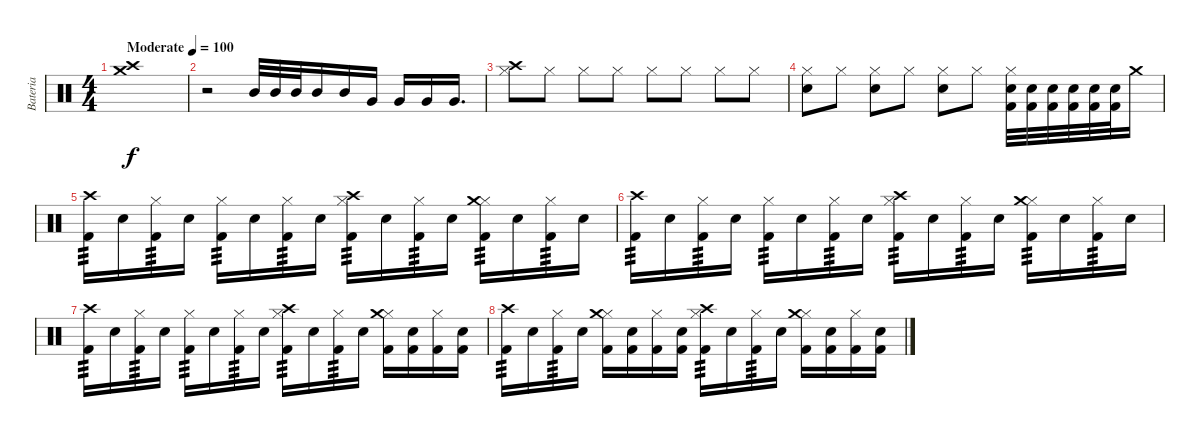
\track ("Bateria" "Bateria") {mute instrument percussion}
\staff {score}
\articulation defaults
\ts (4 4)
\tempo (100 "Moderate")
\clef neutral
\ks c
("Crash medium (hit)" "Crash high (hit)").1{dy f} |
r.2 "Mid Tom (hit)".32 "Mid Tom (hit)".32 "Mid Tom (hit)".32 "Mid Tom (hit)".16 "Mid Tom (hit)".16 "Very Low Tom (hit)".16 "Very Low Tom (hit)".16 "Very Low Tom (hit)".16 "Very Low Tom (hit)".16{d} |
("Crash high (hit)" "Hi-Hat (closed)").8 "Hi-Hat (closed)".8 "Hi-Hat (closed)".8 "Hi-Hat (closed)".8 "Hi-Hat (closed)".8 "Hi-Hat (closed)".8 "Hi-Hat (closed)".8 "Hi-Hat (closed)".8 |
("Hi-Hat (closed)" "Electric Snare (hit)").8 "Hi-Hat (closed)".8 ("Hi-Hat (closed)" "Electric Snare (hit)").8 "Hi-Hat (closed)".8 ("Hi-Hat (closed)" "Electric Snare (hit)").8 "Hi-Hat (closed)".8 ("Hi-Hat (closed)" "Electric Snare (hit)" "Kick (hit) 2").32 ("Electric Snare (hit)" "Kick (hit) 2").32 ("Electric Snare (hit)" "Kick (hit) 2").32 ("Electric Snare (hit)" "Kick (hit) 2").32 ("Electric Snare (hit)" "Kick (hit) 2").32 ("Electric Snare (hit)" "Kick (hit) 2").32 "Crash medium (hit)".16 |
("Crash high (hit)" "Kick (hit) 2").16{tp 3} "Electric Snare (hit)".16 ("Hi-Hat (closed)" "Kick (hit) 2").16{tp 3} "Electric Snare (hit)".16 ("Hi-Hat (closed)" "Kick (hit) 2").16{tp 3} "Electric Snare (hit)".16 ("Hi-Hat (closed)" "Kick (hit) 2").16{tp 3} "Electric Snare (hit)".16 ("Hi-Hat (closed)" "Crash high (hit)" "Kick (hit) 2").16{tp 3} "Electric Snare (hit)".16 ("Hi-Hat (closed)" "Kick (hit) 2").16{tp 3} "Electric Snare (hit)".16 ("Hi-Hat (closed)" "Crash medium (hit)" "Kick (hit) 2").16{tp 3} "Electric Snare (hit)".16 ("Hi-Hat (closed)" "Kick (hit) 2").16{tp 3} "Electric Snare (hit)".16 |
("Crash high (hit)" "Kick (hit) 2").16{tp 3} "Electric Snare (hit)".16 ("Hi-Hat (closed)" "Kick (hit) 2").16{tp 3} "Electric Snare (hit)".16 ("Hi-Hat (closed)" "Kick (hit) 2").16{tp 3} "Electric Snare (hit)".16 ("Hi-Hat (closed)" "Kick (hit) 2").16{tp 3} "Electric Snare (hit)".16 ("Hi-Hat (closed)" "Crash high (hit)" "Kick (hit) 2").16{tp 3} "Electric Snare (hit)".16 ("Hi-Hat (closed)" "Kick (hit) 2").16{tp 3} "Electric Snare (hit)".16 ("Hi-Hat (closed)" "Crash medium (hit)" "Kick (hit) 2").16{tp 3} "Electric Snare (hit)".16 ("Hi-Hat (closed)" "Kick (hit) 2").16{tp 3} "Electric Snare (hit)".16 |
("Crash high (hit)" "Kick (hit) 2").16{tp 3} "Electric Snare (hit)".16 ("Hi-Hat (closed)" "Kick (hit) 2").16{tp 3} "Electric Snare (hit)".16 ("Hi-Hat (closed)" "Kick (hit) 2").16{tp 3} "Electric Snare (hit)".16 ("Hi-Hat (closed)" "Kick (hit) 2").16{tp 3} "Electric Snare (hit)".16 ("Hi-Hat (closed)" "Crash high (hit)" "Kick (hit) 2").16{tp 3} "Electric Snare (hit)".16 ("Hi-Hat (closed)" "Kick (hit) 2").16{tp 3} "Electric Snare (hit)".16 ("Hi-Hat (closed)" "Crash medium (hit)" "Kick (hit) 2").16 ("Snare (hit)" "Kick (hit) 2").16 ("Hi-Hat (closed)" "Kick (hit) 2").16 ("Snare (hit)" "Kick (hit) 2").16 |
("Crash high (hit)" "Kick (hit) 2").16{tp 3} "Electric Snare (hit)".16 ("Hi-Hat (closed)" "Kick (hit) 2").16{tp 3} "Electric Snare (hit)".16 ("Hi-Hat (closed)" "Crash medium (hit)" "Kick (hit) 2").16 ("Snare (hit)" "Kick (hit) 2").16 ("Hi-Hat (closed)" "Kick (hit) 2").16 ("Snare (hit)" "Kick (hit) 2").16 ("Hi-Hat (closed)" "Crash high (hit)" "Kick (hit) 2").16{tp 3} "Electric Snare (hit)".16 ("Hi-Hat (closed)" "Kick (hit) 2").16{tp 3} "Electric Snare (hit)".16 ("Hi-Hat (closed)" "Crash medium (hit)" "Kick (hit) 2").16 ("Snare (hit)" "Kick (hit) 2").16 ("Hi-Hat (closed)" "Kick (hit) 2").16 ("Snare (hit)" "Kick (hit) 2").16
